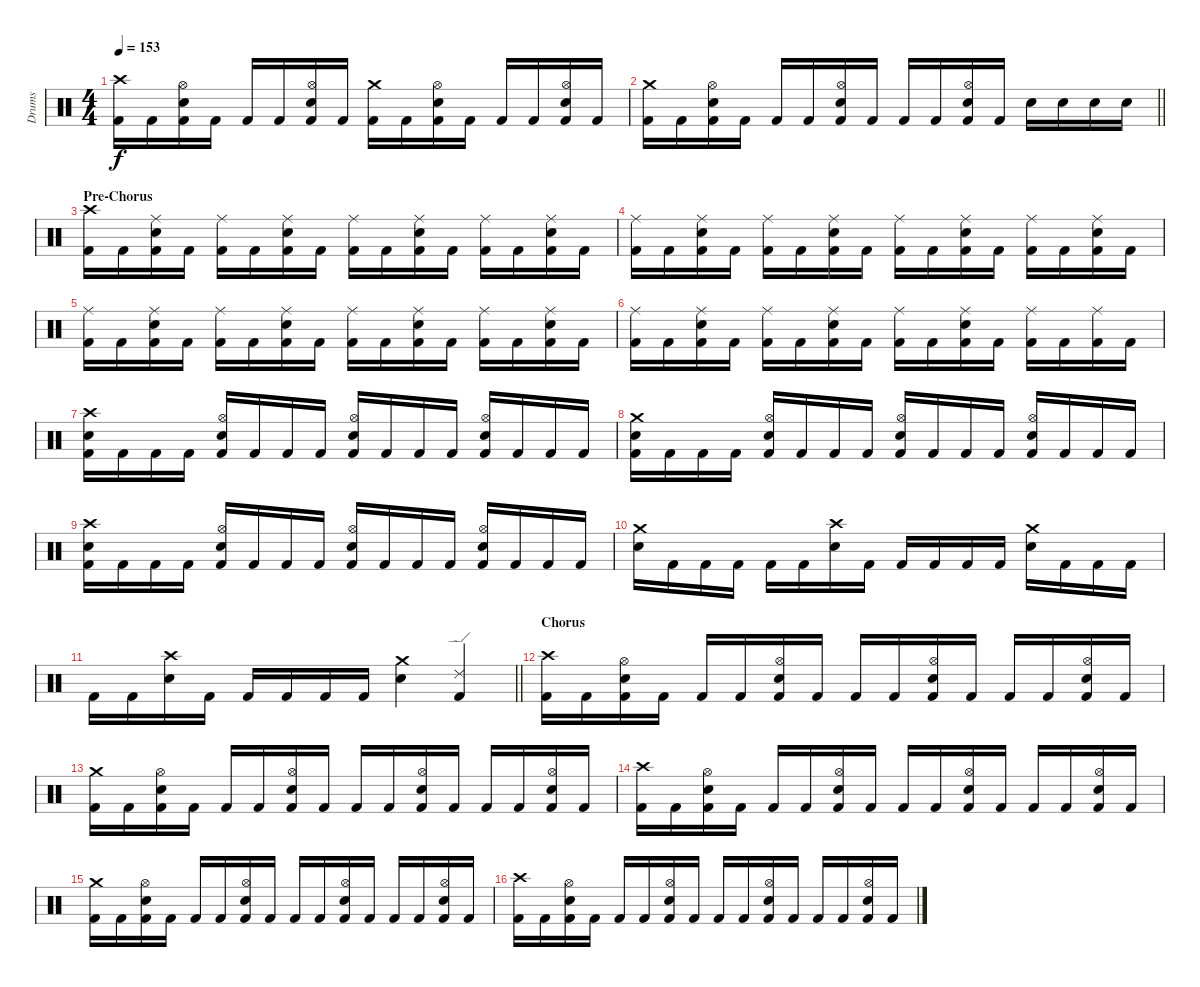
\track ("Drums" "Drums") {instrument percussion}
\staff {score}
\articulation defaults
\ts (4 4)
\tempo 153
\clef neutral
\ks c
("Crash high (hit)" "Kick (hit) 2").16{dy f} "Kick (hit) 2".16 ("Hi-Hat (open)" "Snare (hit) 2" "Kick (hit) 2").16 "Kick (hit) 2".16 "Kick (hit) 2".16 "Kick (hit) 2".16 ("Hi-Hat (open)" "Snare (hit) 2" "Kick (hit) 2").16 "Kick (hit) 2".16 ("Crash medium (hit)" "Kick (hit) 2").16 "Kick (hit) 2".16 ("Hi-Hat (open)" "Snare (hit) 2" "Kick (hit) 2").16 "Kick (hit) 2".16 "Kick (hit) 2".16 "Kick (hit) 2".16 ("Hi-Hat (open)" "Snare (hit) 2" "Kick (hit) 2").16 "Kick (hit) 2".16 |
\barLineRight lightlight
("Crash medium (hit)" "Kick (hit) 2").16 "Kick (hit) 2".16 ("Hi-Hat (open)" "Snare (hit) 2" "Kick (hit) 2").16 "Kick (hit) 2".16 "Kick (hit) 2".16 "Kick (hit) 2".16 ("Hi-Hat (open)" "Snare (hit) 2" "Kick (hit) 2").16 "Kick (hit) 2".16 "Kick (hit) 2".16 "Kick (hit) 2".16 ("Hi-Hat (open)" "Snare (hit) 2" "Kick (hit) 2").16 "Kick (hit) 2".16 "Snare (hit) 2".16 "Snare (hit) 2".16 "Snare (hit) 2".16 "Snare (hit) 2".16 |
\section ("" "Pre-Chorus")
("Crash high (hit)" "Kick (hit) 2").16 "Kick (hit) 2".16 ("Ride (middle)" "Snare (hit) 2" "Kick (hit) 2").16 "Kick (hit) 2".16 ("Ride (middle)" "Kick (hit) 2").16 "Kick (hit) 2".16 ("Ride (middle)" "Snare (hit) 2" "Kick (hit) 2").16 "Kick (hit) 2".16 ("Ride (middle)" "Kick (hit) 2").16 "Kick (hit) 2".16 ("Ride (middle)" "Snare (hit) 2" "Kick (hit) 2").16 "Kick (hit) 2".16 ("Ride (middle)" "Kick (hit) 2").16 "Kick (hit) 2".16 ("Ride (middle)" "Snare (hit) 2" "Kick (hit) 2").16 "Kick (hit) 2".16 |
("Ride (middle)" "Kick (hit) 2").16 "Kick (hit) 2".16 ("Ride (middle)" "Snare (hit) 2" "Kick (hit) 2").16 "Kick (hit) 2".16 ("Ride (middle)" "Kick (hit) 2").16 "Kick (hit) 2".16 ("Ride (middle)" "Snare (hit) 2" "Kick (hit) 2").16 "Kick (hit) 2".16 ("Ride (middle)" "Kick (hit) 2").16 "Kick (hit) 2".16 ("Ride (middle)" "Snare (hit) 2" "Kick (hit) 2").16 "Kick (hit) 2".16 ("Ride (middle)" "Kick (hit) 2").16 "Kick (hit) 2".16 ("Ride (middle)" "Snare (hit) 2" "Kick (hit) 2").16 "Kick (hit) 2".16 |
("Ride (middle)" "Kick (hit) 2").16 "Kick (hit) 2".16 ("Ride (middle)" "Snare (hit) 2" "Kick (hit) 2").16 "Kick (hit) 2".16 ("Ride (middle)" "Kick (hit) 2").16 "Kick (hit) 2".16 ("Ride (middle)" "Snare (hit) 2" "Kick (hit) 2").16 "Kick (hit) 2".16 ("Ride (middle)" "Kick (hit) 2").16 "Kick (hit) 2".16 ("Ride (middle)" "Snare (hit) 2" "Kick (hit) 2").16 "Kick (hit) 2".16 ("Ride (middle)" "Kick (hit) 2").16 "Kick (hit) 2".16 ("Ride (middle)" "Snare (hit) 2" "Kick (hit) 2").16 "Kick (hit) 2".16 |
("Ride (middle)" "Kick (hit) 2").16 "Kick (hit) 2".16 ("Ride (middle)" "Snare (hit) 2" "Kick (hit) 2").16 "Kick (hit) 2".16 ("Ride (middle)" "Kick (hit) 2").16 "Kick (hit) 2".16 ("Ride (middle)" "Snare (hit) 2" "Kick (hit) 2").16 "Kick (hit) 2".16 ("Ride (middle)" "Kick (hit) 2").16 "Kick (hit) 2".16 ("Ride (middle)" "Snare (hit) 2" "Kick (hit) 2").16 "Kick (hit) 2".16 ("Ride (middle)" "Kick (hit) 2").16 "Kick (hit) 2".16 ("Ride (middle)" "Kick (hit) 2").16 "Kick (hit) 2".16 |
("Crash high (hit)" "Snare (hit) 2" "Kick (hit) 2").16 "Kick (hit) 2".16 "Kick (hit) 2".16 "Kick (hit) 2".16 ("Hi-Hat (open)" "Snare (hit) 2" "Kick (hit) 2").16 "Kick (hit) 2".16 "Kick (hit) 2".16 "Kick (hit) 2".16 ("Hi-Hat (open)" "Snare (hit) 2" "Kick (hit) 2").16 "Kick (hit) 2".16 "Kick (hit) 2".16 "Kick (hit) 2".16 ("Hi-Hat (open)" "Snare (hit) 2" "Kick (hit) 2").16 "Kick (hit) 2".16 "Kick (hit) 2".16 "Kick (hit) 2".16 |
("Crash medium (hit)" "Snare (hit) 2" "Kick (hit) 2").16 "Kick (hit) 2".16 "Kick (hit) 2".16 "Kick (hit) 2".16 ("Hi-Hat (open)" "Snare (hit) 2" "Kick (hit) 2").16 "Kick (hit) 2".16 "Kick (hit) 2".16 "Kick (hit) 2".16 ("Hi-Hat (open)" "Snare (hit) 2" "Kick (hit) 2").16 "Kick (hit) 2".16 "Kick (hit) 2".16 "Kick (hit) 2".16 ("Hi-Hat (open)" "Snare (hit) 2" "Kick (hit) 2").16 "Kick (hit) 2".16 "Kick (hit) 2".16 "Kick (hit) 2".16 |
("Crash high (hit)" "Snare (hit) 2" "Kick (hit) 2").16 "Kick (hit) 2".16 "Kick (hit) 2".16 "Kick (hit) 2".16 ("Hi-Hat (open)" "Snare (hit) 2" "Kick (hit) 2").16 "Kick (hit) 2".16 "Kick (hit) 2".16 "Kick (hit) 2".16 ("Hi-Hat (open)" "Snare (hit) 2" "Kick (hit) 2").16 "Kick (hit) 2".16 "Kick (hit) 2".16 "Kick (hit) 2".16 ("Hi-Hat (open)" "Snare (hit) 2" "Kick (hit) 2").16 "Kick (hit) 2".16 "Kick (hit) 2".16 "Kick (hit) 2".16 |
("Crash medium (hit)" "Snare (hit) 2").16 "Kick (hit) 2".16 "Kick (hit) 2".16 "Kick (hit) 2".16 "Kick (hit) 2".16 "Kick (hit) 2".16 ("Crash high (hit)" "Snare (hit) 2").16 "Kick (hit) 2".16 "Kick (hit) 2".16 "Kick (hit) 2".16 "Kick (hit) 2".16 "Kick (hit) 2".16 ("Crash medium (hit)" "Snare (hit) 2").16 "Kick (hit) 2".16 "Kick (hit) 2".16 "Kick (hit) 2".16 |
\barLineRight lightlight "Kick (hit) 2".16 "Kick (hit) 2".16
("Crash high (hit)" "Snare (hit) 2").16 "Kick (hit) 2".16 "Kick (hit) 2".16 "Kick (hit) 2".16 "Kick (hit) 2".16 "Kick (hit) 2".16 ("Crash medium (hit)" "Snare (hit) 2").4 ("Ride (edge) 2" "Kick (hit) 2").4 |
\section ("" "Chorus")
("Crash high (hit)" "Kick (hit) 2").16 "Kick (hit) 2".16 ("Hi-Hat (open)" "Snare (hit) 2" "Kick (hit) 2").16 "Kick (hit) 2".16 "Kick (hit) 2".16 "Kick (hit) 2".16 ("Hi-Hat (open)" "Snare (hit) 2" "Kick (hit) 2").16 "Kick (hit) 2".16 "Kick (hit) 2".16 "Kick (hit) 2".16 ("Hi-Hat (open)" "Snare (hit) 2" "Kick (hit) 2").16 "Kick (hit) 2".16 "Kick (hit) 2".16 "Kick (hit) 2".16 ("Hi-Hat (open)" "Snare (hit) 2" "Kick (hit) 2").16 "Kick (hit) 2".16 |
("Crash medium (hit)" "Kick (hit) 2").16 "Kick (hit) 2".16 ("Hi-Hat (open)" "Snare (hit) 2" "Kick (hit) 2").16 "Kick (hit) 2".16 "Kick (hit) 2".16 "Kick (hit) 2".16 ("Hi-Hat (open)" "Snare (hit) 2" "Kick (hit) 2").16 "Kick (hit) 2".16 "Kick (hit) 2".16 "Kick (hit) 2".16 ("Hi-Hat (open)" "Snare (hit) 2" "Kick (hit) 2").16 "Kick (hit) 2".16 "Kick (hit) 2".16 "Kick (hit) 2".16 ("Hi-Hat (open)" "Snare (hit) 2" "Kick (hit) 2").16 "Kick (hit) 2".16 |
("Crash high (hit)" "Kick (hit) 2").16 "Kick (hit) 2".16 ("Hi-Hat (open)" "Snare (hit) 2" "Kick (hit) 2").16 "Kick (hit) 2".16 "Kick (hit) 2".16 "Kick (hit) 2".16 ("Hi-Hat (open)" "Snare (hit) 2" "Kick (hit) 2").16 "Kick (hit) 2".16 "Kick (hit) 2".16 "Kick (hit) 2".16 ("Hi-Hat (open)" "Snare (hit) 2" "Kick (hit) 2").16 "Kick (hit) 2".16 "Kick (hit) 2".16 "Kick (hit) 2".16 ("Hi-Hat (open)" "Snare (hit) 2" "Kick (hit) 2").16 "Kick (hit) 2".16 |
("Crash medium (hit)" "Kick (hit) 2").16 "Kick (hit) 2".16 ("Hi-Hat (open)" "Snare (hit) 2" "Kick (hit) 2").16 "Kick (hit) 2".16 "Kick (hit) 2".16 "Kick (hit) 2".16 ("Hi-Hat (open)" "Snare (hit) 2" "Kick (hit) 2").16 "Kick (hit) 2".16 "Kick (hit) 2".16 "Kick (hit) 2".16 ("Hi-Hat (open)" "Snare (hit) 2" "Kick (hit) 2").16 "Kick (hit) 2".16 "Kick (hit) 2".16 "Kick (hit) 2".16 ("Hi-Hat (open)" "Snare (hit) 2" "Kick (hit) 2").16 "Kick (hit) 2".16 |
("Crash high (hit)" "Kick (hit) 2").16 "Kick (hit) 2".16 ("Hi-Hat (open)" "Snare (hit) 2" "Kick (hit) 2").16 "Kick (hit) 2".16 "Kick (hit) 2".16 "Kick (hit) 2".16 ("Hi-Hat (open)" "Snare (hit) 2" "Kick (hit) 2").16 "Kick (hit) 2".16 "Kick (hit) 2".16 "Kick (hit) 2".16 ("Hi-Hat (open)" "Snare (hit) 2" "Kick (hit) 2").16 "Kick (hit) 2".16 "Kick (hit) 2".16 "Kick (hit) 2".16 ("Hi-Hat (open)" "Snare (hit) 2" "Kick (hit) 2").16 "Kick (hit) 2".16
